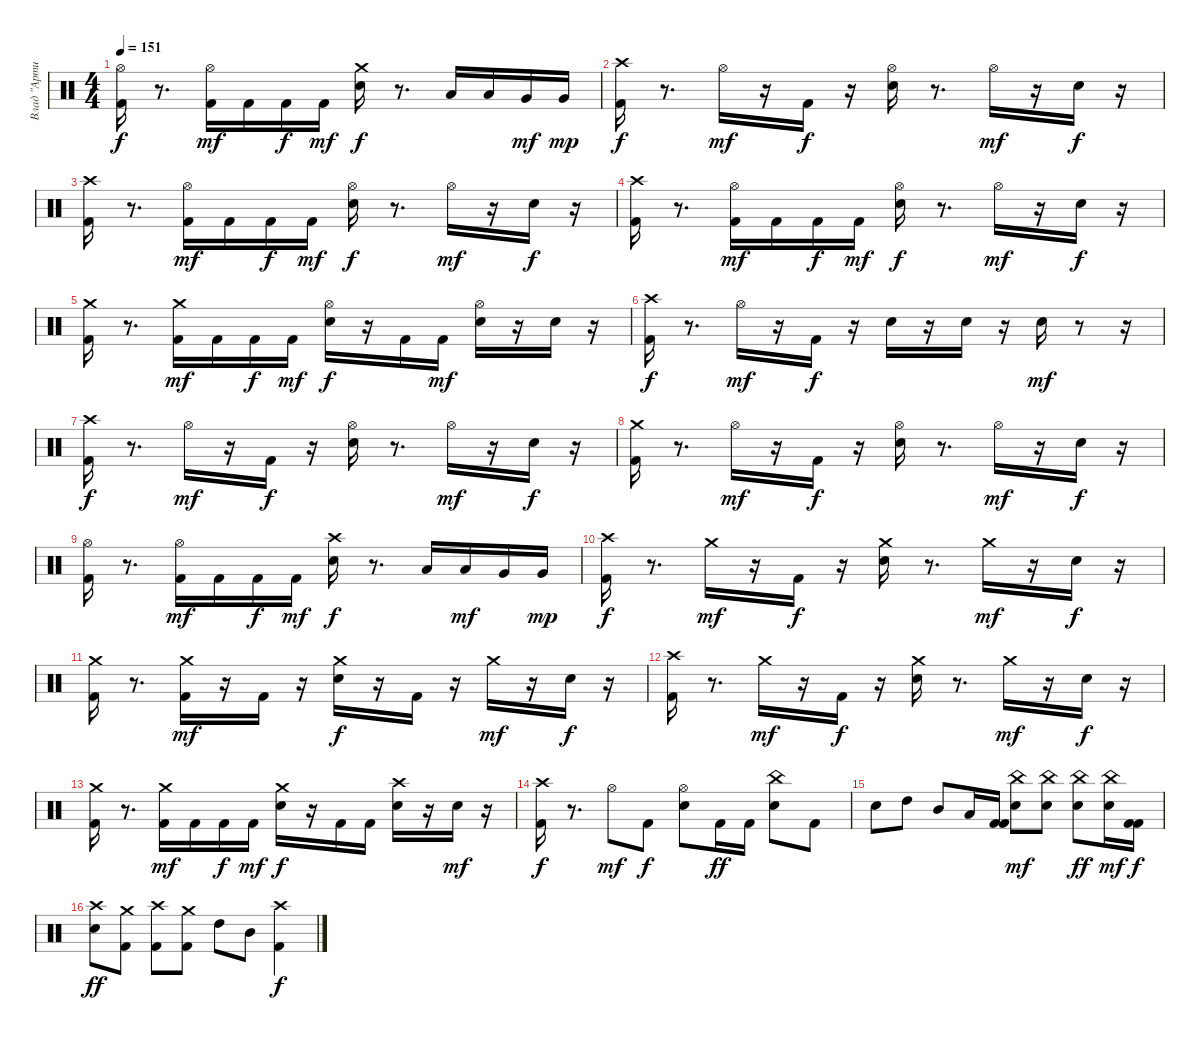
\track ("Влад \"Артист\"" "Влад \"Арти") {instrument percussion}
\staff {score}
\articulation defaults
\ts (4 4)
\tempo 151
\clef neutral
\ks c
("Hi-Hat (open)" "Kick (hit) 2").16{dy f} r.8{d} ("Kick (hit) 2" "Hi-Hat (open)").16{dy mf} "Kick (hit) 2".16 "Kick (hit) 2".16{dy f} "Kick (hit) 2".16{dy mf} ("Snare (hit) 2" "Crash medium (hit)").16{dy f} r.8{d} "Low Tom (hit)".16 "Low Tom (hit)".16 "Very Low Tom (hit)".16{dy mf} "Very Low Tom (hit)".16{dy mp} |
("Crash high (hit)" "Kick (hit) 2").16{dy f} r.8{d} "Hi-Hat (open)".16{dy mf} r.16 "Kick (hit) 2".16{dy f} r.16 ("Snare (hit) 2" "Hi-Hat (open)").16 r.8{d} "Hi-Hat (open)".16{dy mf} r.16 "Snare (hit) 2".16{dy f} r.16 |
("Kick (hit) 2" "Crash high (hit)").16 r.8{d} ("Hi-Hat (open)" "Kick (hit) 2").16{dy mf} "Kick (hit) 2".16 "Kick (hit) 2".16{dy f} "Kick (hit) 2".16{dy mf} ("Hi-Hat (open)" "Snare (hit) 2").16{dy f} r.8{d} "Hi-Hat (open)".16{dy mf} r.16 "Snare (hit) 2".16{dy f} r.16 |
("Crash high (hit)" "Kick (hit) 2").16 r.8{d} ("Hi-Hat (open)" "Kick (hit) 2").16{dy mf} "Kick (hit) 2".16 "Kick (hit) 2".16{dy f} "Kick (hit) 2".16{dy mf} ("Hi-Hat (open)" "Snare (hit) 2").16{dy f} r.8{d} "Hi-Hat (open)".16{dy mf} r.16 "Snare (hit) 2".16{dy f} r.16 |
("Kick (hit) 2" "Crash medium (hit)").16 r.8{d} ("Crash medium (hit)" "Kick (hit) 2").16{dy mf} "Kick (hit) 2".16 "Kick (hit) 2".16{dy f} "Kick (hit) 2".16{dy mf} ("Hi-Hat (open)" "Snare (hit) 2").16{dy f} r.16 "Kick (hit) 2".16 "Kick (hit) 2".16{dy mf} ("Hi-Hat (open)" "Snare (hit) 2").16 r.16 "Snare (hit) 2".16 r.16 |
("Kick (hit) 2" "Crash high (hit)").16{dy f} r.8{d} "Hi-Hat (open)".16{dy mf} r.16 "Kick (hit) 2".16{dy f} r.16 "Snare (hit) 2".16 r.16 "Snare (hit) 2".16 r.16 "Snare (hit) 2".16{dy mf} r.8 r.16 |
("Crash high (hit)" "Kick (hit) 2").16{dy f} r.8{d} "Hi-Hat (open)".16{dy mf} r.16 "Kick (hit) 2".16{dy f} r.16 ("Snare (hit) 2" "Hi-Hat (open)").16 r.8{d} "Hi-Hat (open)".16{dy mf} r.16 "Snare (hit) 2".16{dy f} r.16 |
("Crash medium (hit)" "Kick (hit) 2").16 r.8{d} "Hi-Hat (open)".16{dy mf} r.16 "Kick (hit) 2".16{dy f} r.16 ("Hi-Hat (open)" "Snare (hit) 2").16 r.8{d} "Hi-Hat (open)".16{dy mf} r.16 "Snare (hit) 2".16{dy f} r.16 |
("Hi-Hat (open)" "Kick (hit) 2").16 r.8{d} ("Kick (hit) 2" "Hi-Hat (open)").16{dy mf} "Kick (hit) 2".16 "Kick (hit) 2".16{dy f} "Kick (hit) 2".16{dy mf} ("Snare (hit) 2" "Crash high (hit)").16{dy f} r.8{d} "Low Tom (hit)".16 "Low Tom (hit)".16{dy mf} "Very Low Tom (hit)".16 "Very Low Tom (hit)".16{dy mp} |
("Crash high (hit)" "Kick (hit) 2").16{dy f} r.8{d} "Crash medium (hit)".16{dy mf} r.16 "Kick (hit) 2".16{dy f} r.16 ("Crash medium (hit)" "Snare (hit) 2").16 r.8{d} "Crash medium (hit)".16{dy mf} r.16 "Snare (hit) 2".16{dy f} r.16 |
("Crash medium (hit)" "Kick (hit) 2").16 r.8{d} ("Crash medium (hit)" "Kick (hit) 2").16{dy mf} r.16 "Kick (hit) 2".16 r.16 ("Crash medium (hit)" "Snare (hit) 2").16{dy f} r.16 "Kick (hit) 2".16 r.16 "Crash medium (hit)".16{dy mf} r.16 "Snare (hit) 2".16{dy f} r.16 |
("Crash high (hit)" "Kick (hit) 2").16 r.8{d} "Crash medium (hit)".16{dy mf} r.16 "Kick (hit) 2".16{dy f} r.16 ("Crash medium (hit)" "Snare (hit) 2").16 r.8{d} "Crash medium (hit)".16{dy mf} r.16 "Snare (hit) 2".16{dy f} r.16 |
("Crash medium (hit)" "Kick (hit) 2").16 r.8{d} ("Crash medium (hit)" "Kick (hit) 2").16{dy mf} "Kick (hit) 2".16 "Kick (hit) 2".16{dy f} "Kick (hit) 2".16{dy mf} ("Crash medium (hit)" "Snare (hit) 2").16{dy f} r.16 "Kick (hit) 2".16 "Kick (hit) 2".16 ("Snare (hit) 2" "Crash high (hit)").16 r.16 "Snare (hit) 2".16{dy mf} r.16 |
("Crash high (hit)" "Kick (hit) 2").16{dy f} r.8{d} "Hi-Hat (open)".8{dy mf} "Kick (hit) 2".8{dy f} ("Hi-Hat (open)" "Snare (hit) 2").8 "Kick (hit) 2".16{dy ff} "Kick (hit) 2".16 ("Snare (hit) 2" "China (hit)").8 "Kick (hit) 2".8 |
"Snare (hit) 2".8 "High Tom (hit)".8 "Mid Tom (hit)".8 "Low Tom (hit)".16 ("Kick (hit) 2" "Kick (hit) 2").16 ("China (hit)" "Snare (hit) 2").8{dy mf} ("China (hit)" "Snare (hit) 2").8 ("China (hit)" "Snare (hit) 2").8{dy ff} ("China (hit)" "Snare (hit) 2").16{dy mf} ("Kick (hit) 2" "Kick (hit) 2").16{dy f} |
("Crash high (hit)" "Snare (hit) 2").8{dy ff} ("Crash medium (hit)" "Kick (hit) 2").8 ("Crash high (hit)" "Kick (hit) 2").8 ("Crash medium (hit)" "Kick (hit) 2").8 "High Tom (hit)".8 "Mid Tom (hit)".8 ("Kick (hit) 2" "Crash high (hit)").4{dy f}
